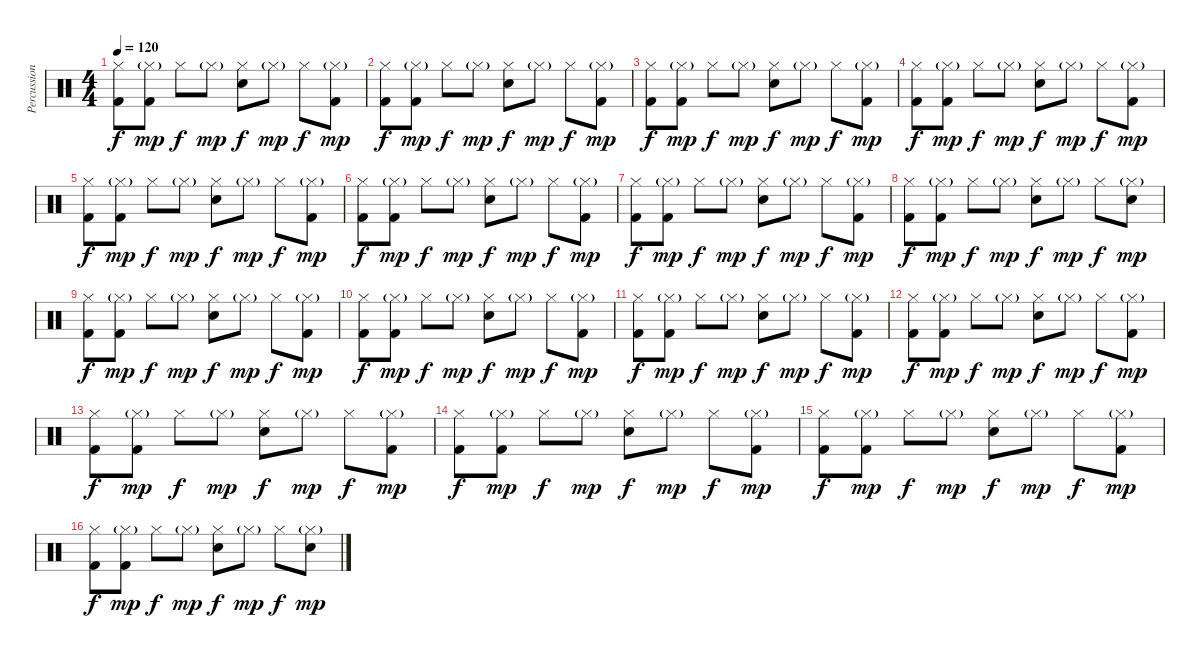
\track ("Percussions" "Percussion") {instrument percussion}
\staff {score}
\articulation defaults
\ts (4 4)
\tempo 120
\clef neutral
\ks c
("Hi-Hat (closed)" "Kick (hit) 2").8{dy f} ("Hi-Hat (closed)"{g} "Kick (hit) 2").8{dy mp} "Hi-Hat (closed)".8{dy f} "Hi-Hat (closed)"{g}.8{dy mp} ("Hi-Hat (closed)" "Snare (hit) 2").8{dy f} "Hi-Hat (closed)"{g}.8{dy mp} "Hi-Hat (closed)".8{dy f} ("Hi-Hat (closed)"{g} "Kick (hit) 2").8{dy mp} |
("Hi-Hat (closed)" "Kick (hit) 2").8{dy f} ("Hi-Hat (closed)"{g} "Kick (hit) 2").8{dy mp} "Hi-Hat (closed)".8{dy f} "Hi-Hat (closed)"{g}.8{dy mp} ("Hi-Hat (closed)" "Snare (hit) 2").8{dy f} "Hi-Hat (closed)"{g}.8{dy mp} "Hi-Hat (closed)".8{dy f} ("Hi-Hat (closed)"{g} "Kick (hit) 2").8{dy mp} |
("Hi-Hat (closed)" "Kick (hit) 2").8{dy f} ("Hi-Hat (closed)"{g} "Kick (hit) 2").8{dy mp} "Hi-Hat (closed)".8{dy f} "Hi-Hat (closed)"{g}.8{dy mp} ("Hi-Hat (closed)" "Snare (hit) 2").8{dy f} "Hi-Hat (closed)"{g}.8{dy mp} "Hi-Hat (closed)".8{dy f} ("Hi-Hat (closed)"{g} "Kick (hit) 2").8{dy mp} |
("Hi-Hat (closed)" "Kick (hit) 2").8{dy f} ("Hi-Hat (closed)"{g} "Kick (hit) 2").8{dy mp} "Hi-Hat (closed)".8{dy f} "Hi-Hat (closed)"{g}.8{dy mp} ("Hi-Hat (closed)" "Snare (hit) 2").8{dy f} "Hi-Hat (closed)"{g}.8{dy mp} "Hi-Hat (closed)".8{dy f} ("Hi-Hat (closed)"{g} "Kick (hit) 2").8{dy mp} |
("Hi-Hat (closed)" "Kick (hit) 2").8{dy f} ("Hi-Hat (closed)"{g} "Kick (hit) 2").8{dy mp} "Hi-Hat (closed)".8{dy f} "Hi-Hat (closed)"{g}.8{dy mp} ("Hi-Hat (closed)" "Snare (hit) 2").8{dy f} "Hi-Hat (closed)"{g}.8{dy mp} "Hi-Hat (closed)".8{dy f} ("Hi-Hat (closed)"{g} "Kick (hit) 2").8{dy mp} |
("Hi-Hat (closed)" "Kick (hit) 2").8{dy f} ("Hi-Hat (closed)"{g} "Kick (hit) 2").8{dy mp} "Hi-Hat (closed)".8{dy f} "Hi-Hat (closed)"{g}.8{dy mp} ("Hi-Hat (closed)" "Snare (hit) 2").8{dy f} "Hi-Hat (closed)"{g}.8{dy mp} "Hi-Hat (closed)".8{dy f} ("Hi-Hat (closed)"{g} "Kick (hit) 2").8{dy mp} |
("Hi-Hat (closed)" "Kick (hit) 2").8{dy f} ("Hi-Hat (closed)"{g} "Kick (hit) 2").8{dy mp} "Hi-Hat (closed)".8{dy f} "Hi-Hat (closed)"{g}.8{dy mp} ("Hi-Hat (closed)" "Snare (hit) 2").8{dy f} "Hi-Hat (closed)"{g}.8{dy mp} "Hi-Hat (closed)".8{dy f} ("Hi-Hat (closed)"{g} "Kick (hit) 2").8{dy mp} |
("Hi-Hat (closed)" "Kick (hit) 2").8{dy f} ("Hi-Hat (closed)"{g} "Kick (hit) 2").8{dy mp} "Hi-Hat (closed)".8{dy f} "Hi-Hat (closed)"{g}.8{dy mp} ("Hi-Hat (closed)" "Snare (hit) 2").8{dy f} "Hi-Hat (closed)"{g}.8{dy mp} "Hi-Hat (closed)".8{dy f} ("Hi-Hat (closed)"{g} "Snare (hit) 2").8{dy mp} |
("Hi-Hat (closed)" "Kick (hit) 2").8{dy f} ("Hi-Hat (closed)"{g} "Kick (hit) 2").8{dy mp} "Hi-Hat (closed)".8{dy f} "Hi-Hat (closed)"{g}.8{dy mp} ("Hi-Hat (closed)" "Snare (hit) 2").8{dy f} "Hi-Hat (closed)"{g}.8{dy mp} "Hi-Hat (closed)".8{dy f} ("Hi-Hat (closed)"{g} "Kick (hit) 2").8{dy mp} |
("Hi-Hat (closed)" "Kick (hit) 2").8{dy f} ("Hi-Hat (closed)"{g} "Kick (hit) 2").8{dy mp} "Hi-Hat (closed)".8{dy f} "Hi-Hat (closed)"{g}.8{dy mp} ("Hi-Hat (closed)" "Snare (hit) 2").8{dy f} "Hi-Hat (closed)"{g}.8{dy mp} "Hi-Hat (closed)".8{dy f} ("Hi-Hat (closed)"{g} "Kick (hit) 2").8{dy mp} |
("Hi-Hat (closed)" "Kick (hit) 2").8{dy f} ("Hi-Hat (closed)"{g} "Kick (hit) 2").8{dy mp} "Hi-Hat (closed)".8{dy f} "Hi-Hat (closed)"{g}.8{dy mp} ("Hi-Hat (closed)" "Snare (hit) 2").8{dy f} "Hi-Hat (closed)"{g}.8{dy mp} "Hi-Hat (closed)".8{dy f} ("Hi-Hat (closed)"{g} "Kick (hit) 2").8{dy mp} |
("Hi-Hat (closed)" "Kick (hit) 2").8{dy f} ("Hi-Hat (closed)"{g} "Kick (hit) 2").8{dy mp} "Hi-Hat (closed)".8{dy f} "Hi-Hat (closed)"{g}.8{dy mp} ("Hi-Hat (closed)" "Snare (hit) 2").8{dy f} "Hi-Hat (closed)"{g}.8{dy mp} "Hi-Hat (closed)".8{dy f} ("Hi-Hat (closed)"{g} "Kick (hit) 2").8{dy mp} |
("Hi-Hat (closed)" "Kick (hit) 2").8{dy f} ("Hi-Hat (closed)"{g} "Kick (hit) 2").8{dy mp} "Hi-Hat (closed)".8{dy f} "Hi-Hat (closed)"{g}.8{dy mp} ("Hi-Hat (closed)" "Snare (hit) 2").8{dy f} "Hi-Hat (closed)"{g}.8{dy mp} "Hi-Hat (closed)".8{dy f} ("Hi-Hat (closed)"{g} "Kick (hit) 2").8{dy mp} |
("Hi-Hat (closed)" "Kick (hit) 2").8{dy f} ("Hi-Hat (closed)"{g} "Kick (hit) 2").8{dy mp} "Hi-Hat (closed)".8{dy f} "Hi-Hat (closed)"{g}.8{dy mp} ("Hi-Hat (closed)" "Snare (hit) 2").8{dy f} "Hi-Hat (closed)"{g}.8{dy mp} "Hi-Hat (closed)".8{dy f} ("Hi-Hat (closed)"{g} "Kick (hit) 2").8{dy mp} |
("Hi-Hat (closed)" "Kick (hit) 2").8{dy f} ("Hi-Hat (closed)"{g} "Kick (hit) 2").8{dy mp} "Hi-Hat (closed)".8{dy f} "Hi-Hat (closed)"{g}.8{dy mp} ("Hi-Hat (closed)" "Snare (hit) 2").8{dy f} "Hi-Hat (closed)"{g}.8{dy mp} "Hi-Hat (closed)".8{dy f} ("Hi-Hat (closed)"{g} "Kick (hit) 2").8{dy mp} |
("Hi-Hat (closed)" "Kick (hit) 2").8{dy f} ("Hi-Hat (closed)"{g} "Kick (hit) 2").8{dy mp} "Hi-Hat (closed)".8{dy f} "Hi-Hat (closed)"{g}.8{dy mp} ("Hi-Hat (closed)" "Snare (hit) 2").8{dy f} "Hi-Hat (closed)"{g}.8{dy mp} "Hi-Hat (closed)".8{dy f} ("Hi-Hat (closed)"{g} "Snare (hit) 2").8{dy mp}
